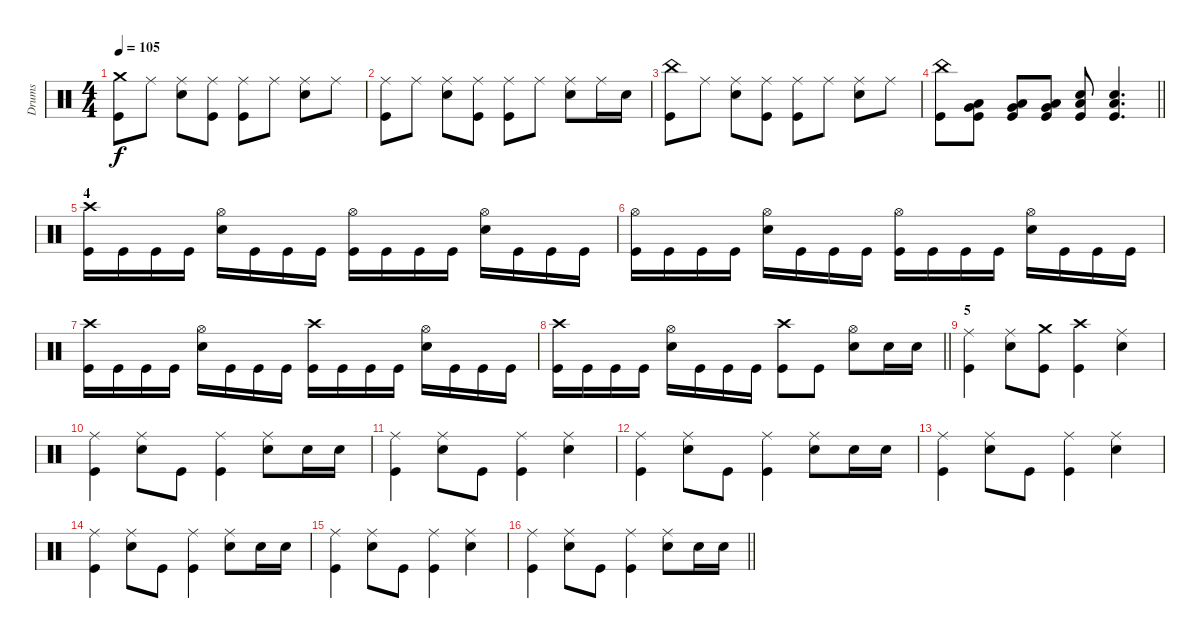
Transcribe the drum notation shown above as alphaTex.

\track ("Drums" "Drums") {instrument percussion}
\staff
\articulation defaults
\ts (4 4)
\tempo 105
\clef neutral
\ks c
("Crash medium (hit)" "Kick (hit)").8{dy f} "Ride (middle)".8 ("Ride (middle)" "Electric Snare (hit)").8 ("Ride (middle)" "Kick (hit)").8 ("Ride (middle)" "Kick (hit)").8 "Ride (middle)".8 ("Ride (middle)" "Electric Snare (hit)").8 "Ride (middle)".8 |
("Ride (middle)" "Kick (hit)").8 "Ride (middle)".8 ("Ride (middle)" "Electric Snare (hit)").8 ("Ride (middle)" "Kick (hit)").8 ("Ride (middle)" "Kick (hit)").8 "Ride (middle)".8 ("Ride (middle)" "Electric Snare (hit)").8 "Ride (middle)".16 "Electric Snare (hit)".16 |
("China (hit)" "Kick (hit)").8 "Ride (middle)".8 ("Ride (middle)" "Electric Snare (hit)").8 ("Ride (middle)" "Kick (hit)").8 ("Ride (middle)" "Kick (hit)").8 "Ride (middle)".8 ("Ride (middle)" "Electric Snare (hit)").8 "Ride (middle)".8 |
\barLineRight lightlight
("China (hit)" "Kick (hit)").8 ("Very Low Tom (hit)" "Low Floor Tom (hit)" "Kick (hit)").8 ("Very Low Tom (hit)" "Low Floor Tom (hit)" "Kick (hit)").8 ("Very Low Tom (hit)" "Low Floor Tom (hit)" "Kick (hit)").8 ("Electric Snare (hit)" "Low Floor Tom (hit)" "Kick (hit)").8 ("Electric Snare (hit)" "Low Floor Tom (hit)" "Kick (hit)").4{d} |
\section ("" "4")
("Crash high (hit)" "Kick (hit)").16 "Kick (hit)".16 "Kick (hit)".16 "Kick (hit)".16 ("Hi-Hat (open)" "Electric Snare (hit)").16 "Kick (hit)".16 "Kick (hit)".16 "Kick (hit)".16 ("Hi-Hat (open)" "Kick (hit)").16 "Kick (hit)".16 "Kick (hit)".16 "Kick (hit)".16 ("Hi-Hat (open)" "Electric Snare (hit)").16 "Kick (hit)".16 "Kick (hit)".16 "Kick (hit)".16 |
("Hi-Hat (open)" "Kick (hit)").16 "Kick (hit)".16 "Kick (hit)".16 "Kick (hit)".16 ("Hi-Hat (open)" "Electric Snare (hit)").16 "Kick (hit)".16 "Kick (hit)".16 "Kick (hit)".16 ("Hi-Hat (open)" "Kick (hit)").16 "Kick (hit)".16 "Kick (hit)".16 "Kick (hit)".16 ("Hi-Hat (open)" "Electric Snare (hit)").16 "Kick (hit)".16 "Kick (hit)".16 "Kick (hit)".16 |
("Crash high (hit)" "Kick (hit)").16 "Kick (hit)".16 "Kick (hit)".16 "Kick (hit)".16 ("Hi-Hat (open)" "Electric Snare (hit)").16 "Kick (hit)".16 "Kick (hit)".16 "Kick (hit)".16 ("Crash high (hit)" "Kick (hit)").16 "Kick (hit)".16 "Kick (hit)".16 "Kick (hit)".16 ("Hi-Hat (open)" "Electric Snare (hit)").16 "Kick (hit)".16 "Kick (hit)".16 "Kick (hit)".16 |
\barLineRight lightlight
("Crash high (hit)" "Kick (hit)").16 "Kick (hit)".16 "Kick (hit)".16 "Kick (hit)".16 ("Hi-Hat (open)" "Electric Snare (hit)").16 "Kick (hit)".16 "Kick (hit)".16 "Kick (hit)".16 ("Crash high (hit)" "Kick (hit)").8 "Kick (hit)".8 ("Hi-Hat (open)" "Electric Snare (hit)").8 "Electric Snare (hit)".16 "Electric Snare (hit)".16 |
\section ("" "5")
("Ride (middle)" "Kick (hit)").4 ("Ride (middle)" "Electric Snare (hit)").8 ("Crash medium (hit)" "Kick (hit)").8 ("Crash high (hit)" "Kick (hit)").4 ("Ride (middle)" "Electric Snare (hit)").4 |
("Ride (middle)" "Kick (hit)").4 ("Ride (middle)" "Electric Snare (hit)").8 "Kick (hit)".8 ("Ride (middle)" "Kick (hit)").4 ("Ride (middle)" "Electric Snare (hit)").8 "Electric Snare (hit)".16 "Electric Snare (hit)".16 |
("Ride (middle)" "Kick (hit)").4 ("Ride (middle)" "Electric Snare (hit)").8 "Kick (hit)".8 ("Ride (middle)" "Kick (hit)").4 ("Ride (middle)" "Electric Snare (hit)").4 |
("Ride (middle)" "Kick (hit)").4 ("Ride (middle)" "Electric Snare (hit)").8 "Kick (hit)".8 ("Ride (middle)" "Kick (hit)").4 ("Ride (middle)" "Electric Snare (hit)").8 "Electric Snare (hit)".16 "Electric Snare (hit)".16 |
("Ride (middle)" "Kick (hit)").4 ("Ride (middle)" "Electric Snare (hit)").8 "Kick (hit)".8 ("Ride (middle)" "Kick (hit)").4 ("Ride (middle)" "Electric Snare (hit)").4 |
("Ride (middle)" "Kick (hit)").4 ("Ride (middle)" "Electric Snare (hit)").8 "Kick (hit)".8 ("Ride (middle)" "Kick (hit)").4 ("Ride (middle)" "Electric Snare (hit)").8 "Electric Snare (hit)".16 "Electric Snare (hit)".16 |
("Ride (middle)" "Kick (hit)").4 ("Ride (middle)" "Electric Snare (hit)").8 "Kick (hit)".8 ("Ride (middle)" "Kick (hit)").4 ("Ride (middle)" "Electric Snare (hit)").4 |
\barLineRight lightlight
("Ride (middle)" "Kick (hit)").4 ("Ride (middle)" "Electric Snare (hit)").8 "Kick (hit)".8 ("Ride (middle)" "Kick (hit)").4 ("Ride (middle)" "Electric Snare (hit)").8 "Electric Snare (hit)".16 "Electric Snare (hit)".16
